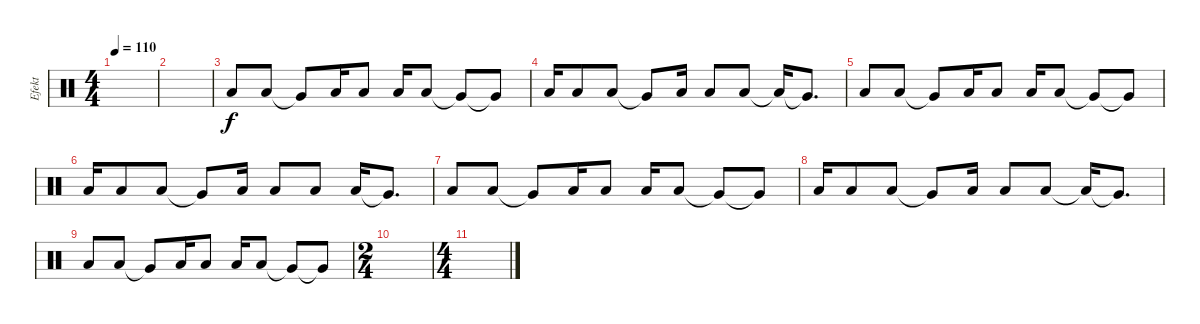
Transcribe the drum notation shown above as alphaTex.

\track ("Efekt" "Efekt") {instrument percussion}
\staff {score}
\articulation defaults
\ts (4 4)
\tempo 110
\clef neutral
\ks c
|
|
"Low Floor Tom (hit)".8{volume 6} "Low Floor Tom (hit)".8 "Very Low Tom (hit)"{t}.8 "Low Floor Tom (hit)".16 "Low Floor Tom (hit)".8 "Low Floor Tom (hit)".16 "Low Floor Tom (hit)".8 "Very Low Tom (hit)"{t}.8 "Very Low Tom (hit)"{t}.8 |
"Low Floor Tom (hit)".16 "Low Floor Tom (hit)".8 "Low Floor Tom (hit)".8 "Very Low Tom (hit)"{t}.8 "Low Floor Tom (hit)".16 "Low Floor Tom (hit)".8 "Low Floor Tom (hit)".8 "Low Floor Tom (hit)"{t}.16 "Very Low Tom (hit)"{t}.8{d} |
"Low Floor Tom (hit)".8 "Low Floor Tom (hit)".8 "Very Low Tom (hit)"{t}.8 "Low Floor Tom (hit)".16 "Low Floor Tom (hit)".8 "Low Floor Tom (hit)".16 "Low Floor Tom (hit)".8 "Very Low Tom (hit)"{t}.8 "Very Low Tom (hit)"{t}.8 |
"Low Floor Tom (hit)".16 "Low Floor Tom (hit)".8 "Low Floor Tom (hit)".8 "Very Low Tom (hit)"{t}.8 "Low Floor Tom (hit)".16 "Low Floor Tom (hit)".8 "Low Floor Tom (hit)".8 "Low Floor Tom (hit)".16 "Very Low Tom (hit)"{t}.8{d} |
"Low Floor Tom (hit)".8 "Low Floor Tom (hit)".8 "Very Low Tom (hit)"{t}.8 "Low Floor Tom (hit)".16 "Low Floor Tom (hit)".8 "Low Floor Tom (hit)".16 "Low Floor Tom (hit)".8 "Very Low Tom (hit)"{t}.8 "Very Low Tom (hit)"{t}.8 |
"Low Floor Tom (hit)".16 "Low Floor Tom (hit)".8 "Low Floor Tom (hit)".8 "Very Low Tom (hit)"{t}.8 "Low Floor Tom (hit)".16 "Low Floor Tom (hit)".8 "Low Floor Tom (hit)".8 "Low Floor Tom (hit)"{t}.16 "Very Low Tom (hit)"{t}.8{d} |
"Low Floor Tom (hit)".8 "Low Floor Tom (hit)".8 "Very Low Tom (hit)"{t}.8 "Low Floor Tom (hit)".16 "Low Floor Tom (hit)".8 "Low Floor Tom (hit)".16 "Low Floor Tom (hit)".8 "Very Low Tom (hit)"{t}.8 "Very Low Tom (hit)"{t}.8 |
\ts (2 4)
|
\ts (4 4)
